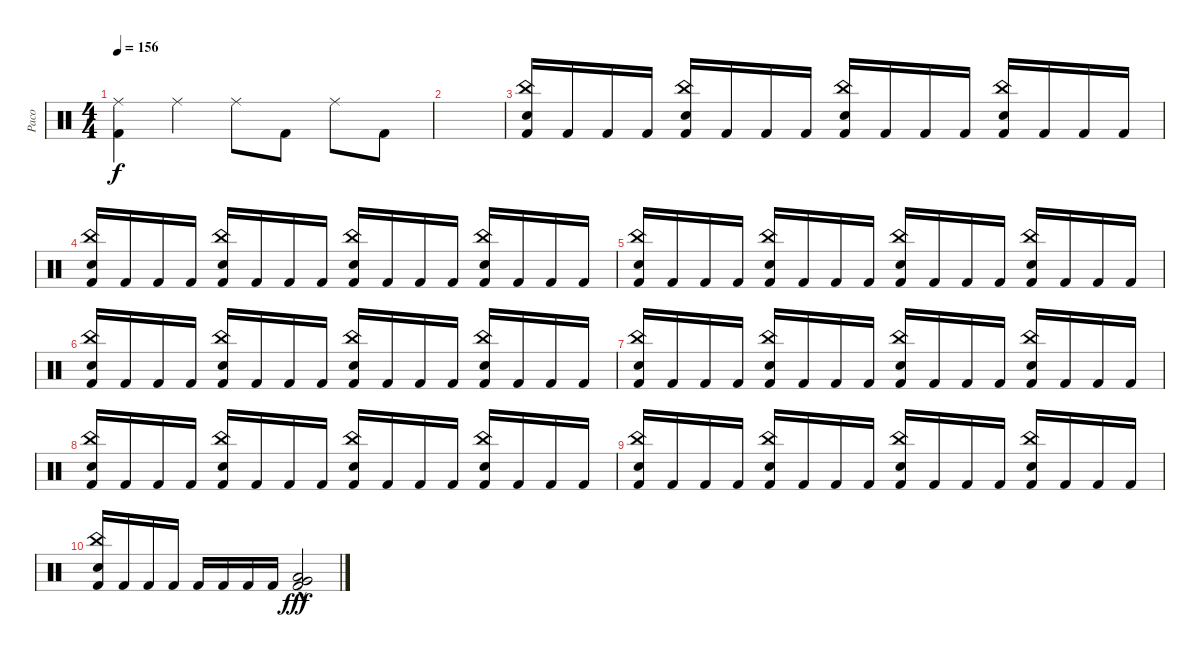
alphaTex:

\track ("Paco" "Paco") {instrument percussion}
\staff {score}
\articulation defaults
\ts (4 4)
\tempo 156
\clef neutral
\ks c
("Ride (middle)" "Kick (hit) 2").4{dy f} "Ride (middle)".4 "Ride (middle)".8 "Kick (hit) 2".8 "Ride (middle)".8 "Kick (hit) 2".8 |
|
("China (hit)" "Electric Snare (hit)" "Kick (hit) 2").16 "Kick (hit) 2".16 "Kick (hit) 2".16 "Kick (hit) 2".16 ("China (hit)" "Electric Snare (hit)" "Kick (hit) 2").16 "Kick (hit) 2".16 "Kick (hit) 2".16 "Kick (hit) 2".16 ("China (hit)" "Electric Snare (hit)" "Kick (hit) 2").16 "Kick (hit) 2".16 "Kick (hit) 2".16 "Kick (hit) 2".16 ("China (hit)" "Electric Snare (hit)" "Kick (hit) 2").16 "Kick (hit) 2".16 "Kick (hit) 2".16 "Kick (hit) 2".16 |
("China (hit)" "Electric Snare (hit)" "Kick (hit) 2").16 "Kick (hit) 2".16 "Kick (hit) 2".16 "Kick (hit) 2".16 ("China (hit)" "Electric Snare (hit)" "Kick (hit) 2").16 "Kick (hit) 2".16 "Kick (hit) 2".16 "Kick (hit) 2".16 ("China (hit)" "Electric Snare (hit)" "Kick (hit) 2").16 "Kick (hit) 2".16 "Kick (hit) 2".16 "Kick (hit) 2".16 ("China (hit)" "Electric Snare (hit)" "Kick (hit) 2").16 "Kick (hit) 2".16 "Kick (hit) 2".16 "Kick (hit) 2".16 |
("China (hit)" "Electric Snare (hit)" "Kick (hit) 2").16 "Kick (hit) 2".16 "Kick (hit) 2".16 "Kick (hit) 2".16 ("China (hit)" "Electric Snare (hit)" "Kick (hit) 2").16 "Kick (hit) 2".16 "Kick (hit) 2".16 "Kick (hit) 2".16 ("China (hit)" "Electric Snare (hit)" "Kick (hit) 2").16 "Kick (hit) 2".16 "Kick (hit) 2".16 "Kick (hit) 2".16 ("China (hit)" "Electric Snare (hit)" "Kick (hit) 2").16 "Kick (hit) 2".16 "Kick (hit) 2".16 "Kick (hit) 2".16 |
("China (hit)" "Electric Snare (hit)" "Kick (hit) 2").16 "Kick (hit) 2".16 "Kick (hit) 2".16 "Kick (hit) 2".16 ("China (hit)" "Electric Snare (hit)" "Kick (hit) 2").16 "Kick (hit) 2".16 "Kick (hit) 2".16 "Kick (hit) 2".16 ("China (hit)" "Electric Snare (hit)" "Kick (hit) 2").16 "Kick (hit) 2".16 "Kick (hit) 2".16 "Kick (hit) 2".16 ("China (hit)" "Electric Snare (hit)" "Kick (hit) 2").16 "Kick (hit) 2".16 "Kick (hit) 2".16 "Kick (hit) 2".16 |
("China (hit)" "Electric Snare (hit)" "Kick (hit) 2").16 "Kick (hit) 2".16 "Kick (hit) 2".16 "Kick (hit) 2".16 ("China (hit)" "Electric Snare (hit)" "Kick (hit) 2").16 "Kick (hit) 2".16 "Kick (hit) 2".16 "Kick (hit) 2".16 ("China (hit)" "Electric Snare (hit)" "Kick (hit) 2").16 "Kick (hit) 2".16 "Kick (hit) 2".16 "Kick (hit) 2".16 ("China (hit)" "Electric Snare (hit)" "Kick (hit) 2").16 "Kick (hit) 2".16 "Kick (hit) 2".16 "Kick (hit) 2".16 |
("China (hit)" "Electric Snare (hit)" "Kick (hit) 2").16 "Kick (hit) 2".16 "Kick (hit) 2".16 "Kick (hit) 2".16 ("China (hit)" "Electric Snare (hit)" "Kick (hit) 2").16 "Kick (hit) 2".16 "Kick (hit) 2".16 "Kick (hit) 2".16 ("China (hit)" "Electric Snare (hit)" "Kick (hit) 2").16 "Kick (hit) 2".16 "Kick (hit) 2".16 "Kick (hit) 2".16 ("China (hit)" "Electric Snare (hit)" "Kick (hit) 2").16 "Kick (hit) 2".16 "Kick (hit) 2".16 "Kick (hit) 2".16 |
("China (hit)" "Electric Snare (hit)" "Kick (hit) 2").16 "Kick (hit) 2".16 "Kick (hit) 2".16 "Kick (hit) 2".16 ("China (hit)" "Electric Snare (hit)" "Kick (hit) 2").16 "Kick (hit) 2".16 "Kick (hit) 2".16 "Kick (hit) 2".16 ("China (hit)" "Electric Snare (hit)" "Kick (hit) 2").16 "Kick (hit) 2".16 "Kick (hit) 2".16 "Kick (hit) 2".16 ("China (hit)" "Electric Snare (hit)" "Kick (hit) 2").16 "Kick (hit) 2".16 "Kick (hit) 2".16 "Kick (hit) 2".16 |
("China (hit)" "Electric Snare (hit)" "Kick (hit) 2").16 "Kick (hit) 2".16 "Kick (hit) 2".16 "Kick (hit) 2".16 "Kick (hit) 2".16 "Kick (hit) 2".16 "Kick (hit) 2".16 "Kick (hit) 2".16 ("Low Floor Tom (hit)"{hac} "Very Low Tom (hit)"{hac} "Kick (hit) 2"{hac}).2{dy fff}
